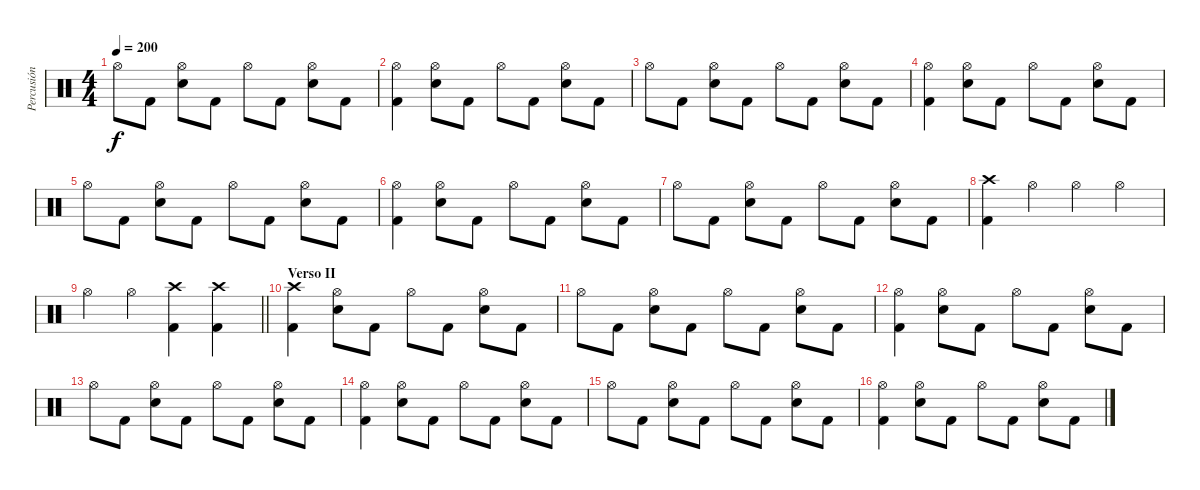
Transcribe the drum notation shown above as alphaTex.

\track ("Percusión" "Percusión") {instrument percussion}
\staff {score}
\articulation defaults
\ts (4 4)
\tempo 200
\clef neutral
\ks c "Hi-Hat (open)".8{dy f} "Kick (hit) 2".8
("Hi-Hat (open)" "Electric Snare (hit)").8 "Kick (hit) 2".8 "Hi-Hat (open)".8 "Kick (hit) 2".8 ("Hi-Hat (open)" "Electric Snare (hit)").8 "Kick (hit) 2".8 |
("Hi-Hat (open)" "Kick (hit) 2").4 ("Hi-Hat (open)" "Electric Snare (hit)").8 "Kick (hit) 2".8 "Hi-Hat (open)".8 "Kick (hit) 2".8 ("Hi-Hat (open)" "Electric Snare (hit)").8 "Kick (hit) 2".8 |
"Hi-Hat (open)".8 "Kick (hit) 2".8 ("Hi-Hat (open)" "Electric Snare (hit)").8 "Kick (hit) 2".8 "Hi-Hat (open)".8 "Kick (hit) 2".8 ("Hi-Hat (open)" "Electric Snare (hit)").8 "Kick (hit) 2".8 |
("Hi-Hat (open)" "Kick (hit) 2").4 ("Hi-Hat (open)" "Electric Snare (hit)").8 "Kick (hit) 2".8 "Hi-Hat (open)".8 "Kick (hit) 2".8 ("Hi-Hat (open)" "Electric Snare (hit)").8 "Kick (hit) 2".8 |
"Hi-Hat (open)".8 "Kick (hit) 2".8 ("Hi-Hat (open)" "Electric Snare (hit)").8 "Kick (hit) 2".8 "Hi-Hat (open)".8 "Kick (hit) 2".8 ("Hi-Hat (open)" "Electric Snare (hit)").8 "Kick (hit) 2".8 |
("Hi-Hat (open)" "Kick (hit) 2").4 ("Hi-Hat (open)" "Electric Snare (hit)").8 "Kick (hit) 2".8 "Hi-Hat (open)".8 "Kick (hit) 2".8 ("Hi-Hat (open)" "Electric Snare (hit)").8 "Kick (hit) 2".8 |
"Hi-Hat (open)".8 "Kick (hit) 2".8 ("Hi-Hat (open)" "Electric Snare (hit)").8 "Kick (hit) 2".8 "Hi-Hat (open)".8 "Kick (hit) 2".8 ("Hi-Hat (open)" "Electric Snare (hit)").8 "Kick (hit) 2".8 |
("Crash high (hit)" "Kick (hit) 2").4 "Hi-Hat (open)".4 "Hi-Hat (open)".4 "Hi-Hat (open)".4 |
\barLineRight lightlight "Hi-Hat (open)".4 "Hi-Hat (open)".4
("Crash high (hit)" "Kick (hit) 2").4 ("Crash high (hit)" "Kick (hit) 2").4 |
\section ("" "Verso II")
("Crash high (hit)" "Kick (hit) 2").4 ("Hi-Hat (open)" "Electric Snare (hit)").8 "Kick (hit) 2".8 "Hi-Hat (open)".8 "Kick (hit) 2".8 ("Hi-Hat (open)" "Electric Snare (hit)").8 "Kick (hit) 2".8 |
"Hi-Hat (open)".8 "Kick (hit) 2".8 ("Hi-Hat (open)" "Electric Snare (hit)").8 "Kick (hit) 2".8 "Hi-Hat (open)".8 "Kick (hit) 2".8 ("Hi-Hat (open)" "Electric Snare (hit)").8 "Kick (hit) 2".8 |
("Hi-Hat (open)" "Kick (hit) 2").4 ("Hi-Hat (open)" "Electric Snare (hit)").8 "Kick (hit) 2".8 "Hi-Hat (open)".8 "Kick (hit) 2".8 ("Hi-Hat (open)" "Electric Snare (hit)").8 "Kick (hit) 2".8 |
"Hi-Hat (open)".8 "Kick (hit) 2".8 ("Hi-Hat (open)" "Electric Snare (hit)").8 "Kick (hit) 2".8 "Hi-Hat (open)".8 "Kick (hit) 2".8 ("Hi-Hat (open)" "Electric Snare (hit)").8 "Kick (hit) 2".8 |
("Hi-Hat (open)" "Kick (hit) 2").4 ("Hi-Hat (open)" "Electric Snare (hit)").8 "Kick (hit) 2".8 "Hi-Hat (open)".8 "Kick (hit) 2".8 ("Hi-Hat (open)" "Electric Snare (hit)").8 "Kick (hit) 2".8 |
"Hi-Hat (open)".8 "Kick (hit) 2".8 ("Hi-Hat (open)" "Electric Snare (hit)").8 "Kick (hit) 2".8 "Hi-Hat (open)".8 "Kick (hit) 2".8 ("Hi-Hat (open)" "Electric Snare (hit)").8 "Kick (hit) 2".8 |
("Hi-Hat (open)" "Kick (hit) 2").4 ("Hi-Hat (open)" "Electric Snare (hit)").8 "Kick (hit) 2".8 "Hi-Hat (open)".8 "Kick (hit) 2".8 ("Hi-Hat (open)" "Electric Snare (hit)").8 "Kick (hit) 2".8
